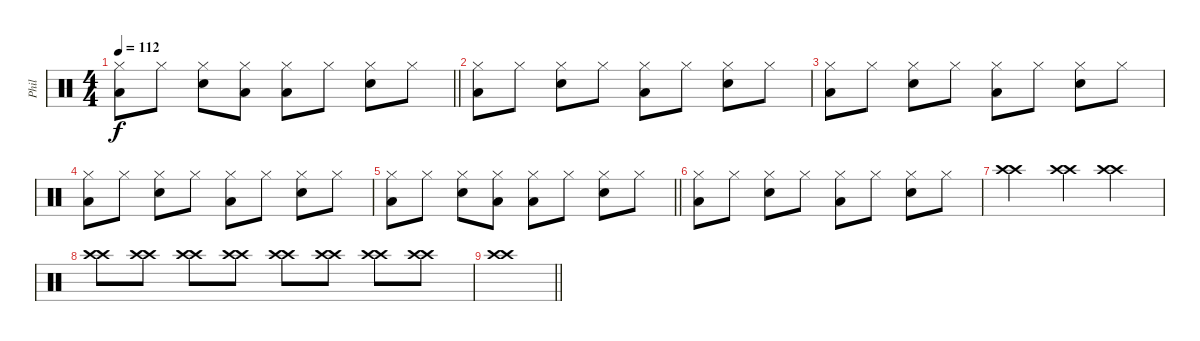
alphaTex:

\track ("Phil" "Phil") {instrument percussion}
\staff {score}
\articulation defaults
\ts (4 4)
\tempo 112
\clef neutral
\barLineRight lightlight
\ks c
("Hi-Hat (closed)" "Low Floor Tom (hit)").8{dy f} "Hi-Hat (closed)".8 ("Hi-Hat (closed)" "Snare (hit) 2").8 ("Hi-Hat (closed)" "Low Floor Tom (hit)").8 ("Hi-Hat (closed)" "Low Floor Tom (hit)").8 "Hi-Hat (closed)".8 ("Hi-Hat (closed)" "Snare (hit) 2").8 "Hi-Hat (closed)".8 |
("Hi-Hat (closed)" "Low Floor Tom (hit)").8 "Hi-Hat (closed)".8 ("Hi-Hat (closed)" "Snare (hit) 2").8 "Hi-Hat (closed)".8 ("Hi-Hat (closed)" "Low Floor Tom (hit)").8 "Hi-Hat (closed)".8 ("Hi-Hat (closed)" "Snare (hit) 2").8 "Hi-Hat (closed)".8 |
("Hi-Hat (closed)" "Low Floor Tom (hit)").8 "Hi-Hat (closed)".8 ("Hi-Hat (closed)" "Snare (hit) 2").8 "Hi-Hat (closed)".8 ("Hi-Hat (closed)" "Low Floor Tom (hit)").8 "Hi-Hat (closed)".8 ("Hi-Hat (closed)" "Snare (hit) 2").8 "Hi-Hat (closed)".8 |
("Hi-Hat (closed)" "Low Floor Tom (hit)").8 "Hi-Hat (closed)".8 ("Hi-Hat (closed)" "Snare (hit) 2").8 "Hi-Hat (closed)".8 ("Hi-Hat (closed)" "Low Floor Tom (hit)").8 "Hi-Hat (closed)".8 ("Hi-Hat (closed)" "Snare (hit) 2").8 "Hi-Hat (closed)".8 |
\barLineRight lightlight
("Hi-Hat (closed)" "Low Floor Tom (hit)").8 "Hi-Hat (closed)".8 ("Hi-Hat (closed)" "Snare (hit) 2").8 ("Hi-Hat (closed)" "Low Floor Tom (hit)").8 ("Hi-Hat (closed)" "Low Floor Tom (hit)").8 "Hi-Hat (closed)".8 ("Hi-Hat (closed)" "Snare (hit) 2").8 "Hi-Hat (closed)".8 |
("Hi-Hat (closed)" "Low Floor Tom (hit)").8 "Hi-Hat (closed)".8 ("Hi-Hat (closed)" "Snare (hit) 2").8 "Hi-Hat (closed)".8 ("Hi-Hat (closed)" "Low Floor Tom (hit)").8 "Hi-Hat (closed)".8 ("Hi-Hat (closed)" "Snare (hit) 2").8 "Hi-Hat (closed)".8 |
("Crash high (hit)" "Crash high (hit)").2 ("Crash high (hit)" "Crash high (hit)").4 ("Crash high (hit)" "Crash high (hit)").4 |
("Crash high (hit)" "Crash high (hit)").8 ("Crash high (hit)" "Crash high (hit)").8 ("Crash high (hit)" "Crash high (hit)").8 ("Crash high (hit)" "Crash high (hit)").8 ("Crash high (hit)" "Crash high (hit)").8 ("Crash high (hit)" "Crash high (hit)").8 ("Crash high (hit)" "Crash high (hit)").8 ("Crash high (hit)" "Crash high (hit)").8 |
\barLineRight lightlight
("Crash high (hit)" "Crash high (hit)").1
